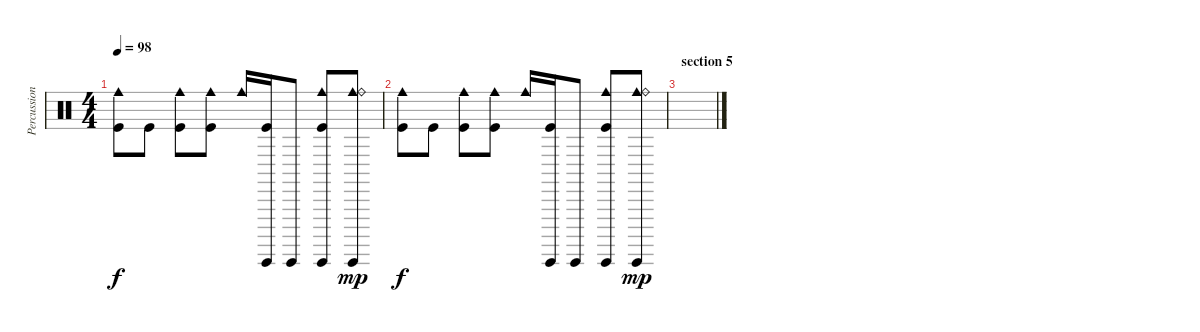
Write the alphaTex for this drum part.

\track ("Percussion" "Percussion") {instrument percussion}
\staff {score}
\articulation defaults
\ts (4 4)
\tempo 98
\clef neutral
\ks c
("Cowbell medium (hit)" "Kick (hit)").8{dy f} "Kick (hit)".8 ("Cowbell medium (hit)" "Kick (hit)").8 ("Cowbell medium (hit)" "Kick (hit)").8 "Cowbell medium (hit)".16 ("Guiro (hit)" "Kick (hit)").16 "Guiro (hit)".8 ("Cowbell medium (hit)" "Guiro (hit)" "Kick (hit)").8 ("Cowbell medium (hit)" "Guiro (hit)" "Ride (bell)").8{dy mp} |
("Cowbell medium (hit)" "Kick (hit)").8{dy f} "Kick (hit)".8 ("Cowbell medium (hit)" "Kick (hit)").8 ("Cowbell medium (hit)" "Kick (hit)").8 "Cowbell medium (hit)".16 ("Guiro (hit)" "Kick (hit)").16 "Guiro (hit)".8 ("Cowbell medium (hit)" "Guiro (hit)" "Kick (hit)").8 ("Cowbell medium (hit)" "Guiro (hit)" "Ride (bell)").8{dy mp} |
\section ("" "section 5")
